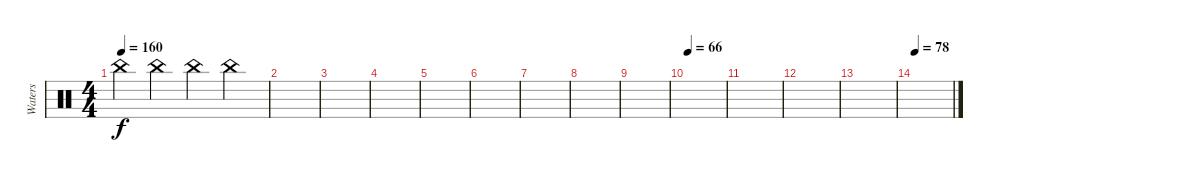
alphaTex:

\track ("Waters " "Waters ") {instrument percussion}
\staff {score}
\articulation defaults
\ts (4 4)
\tempo 160
\clef neutral
\ks c "China (hit)".4{dy f} "China (hit)".4 "China (hit)".4 "China (hit)".4
|
|
|
|
|
|
|
|
|
\tempo 66
|
|
|
|
\tempo 78
